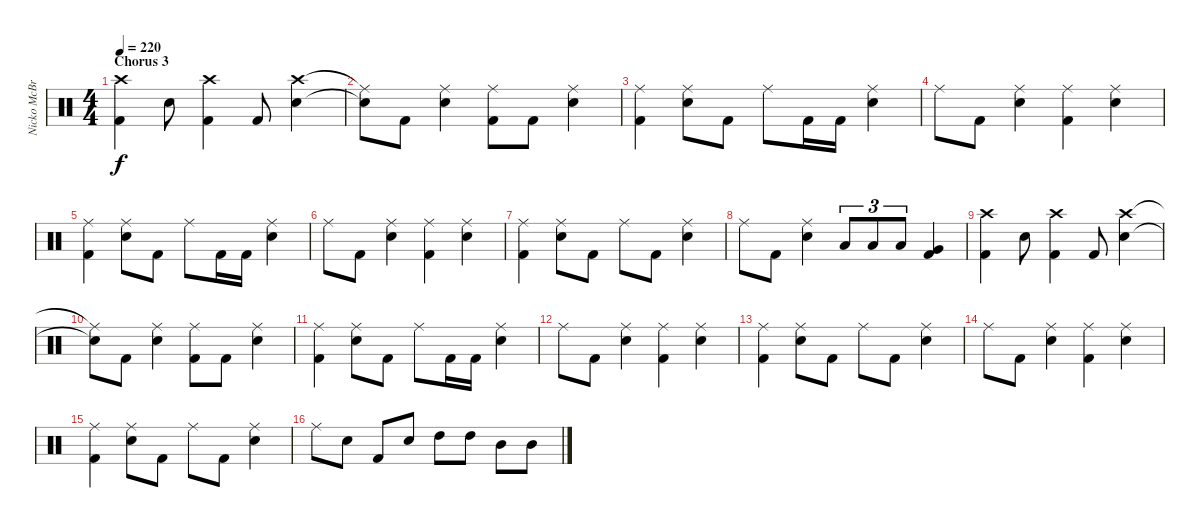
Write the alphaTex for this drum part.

\track ("Nicko McBrain" "Nicko McBr") {instrument percussion}
\staff {score}
\articulation defaults
\ts (4 4)
\section ("" "Chorus 3")
\tempo 220
\clef neutral
\ks c
("Crash high (hit)" "Kick (hit) 2").4{dy f} "Electric Snare (hit)".8 ("Crash high (hit)" "Kick (hit) 2").4 "Kick (hit) 2".8 ("Crash high (hit)" "Electric Snare (hit)").4 |
("Ride (middle)"{t} "Snare (hit)"{t}).8 "Kick (hit) 2".8 ("Ride (middle)" "Electric Snare (hit)").4 ("Ride (middle)" "Kick (hit) 2").8 "Kick (hit) 2".8 ("Ride (middle)" "Electric Snare (hit)").4 |
("Ride (middle)" "Kick (hit) 2").4 ("Ride (middle)" "Electric Snare (hit)").8 "Kick (hit) 2".8 "Ride (middle)".8 "Kick (hit) 2".16 "Kick (hit) 2".16 ("Ride (middle)" "Electric Snare (hit)").4 |
"Ride (middle)".8 "Kick (hit) 2".8 ("Ride (middle)" "Electric Snare (hit)").4 ("Ride (middle)" "Kick (hit) 2").4 ("Ride (middle)" "Electric Snare (hit)").4 |
("Ride (middle)" "Kick (hit) 2").4 ("Ride (middle)" "Electric Snare (hit)").8 "Kick (hit) 2".8 "Ride (middle)".8 "Kick (hit) 2".16 "Kick (hit) 2".16 ("Ride (middle)" "Electric Snare (hit)").4 |
"Ride (middle)".8 "Kick (hit) 2".8 ("Ride (middle)" "Electric Snare (hit)").4 ("Ride (middle)" "Kick (hit) 2").4 ("Ride (middle)" "Electric Snare (hit)").4 |
("Ride (middle)" "Kick (hit) 2").4 ("Ride (middle)" "Electric Snare (hit)").8 "Kick (hit) 2".8 "Ride (middle)".8 "Kick (hit) 2".8 ("Ride (middle)" "Electric Snare (hit)").4 |
"Ride (middle)".8 "Kick (hit) 2".8 ("Ride (middle)" "Electric Snare (hit)").4 "Low Tom (hit)".8{tu (3 2)} "Low Tom (hit)".8{tu (3 2)} "Low Tom (hit)".8{tu (3 2)} ("Very Low Tom (hit)" "Kick (hit) 2").4 |
("Crash high (hit)" "Kick (hit) 2").4 "Electric Snare (hit)".8 ("Crash high (hit)" "Kick (hit) 2").4 "Kick (hit) 2".8 ("Crash high (hit)" "Electric Snare (hit)").4 |
("Ride (middle)"{t} "Snare (hit)"{t}).8 "Kick (hit) 2".8 ("Ride (middle)" "Electric Snare (hit)").4 ("Ride (middle)" "Kick (hit) 2").8 "Kick (hit) 2".8 ("Ride (middle)" "Electric Snare (hit)").4 |
("Ride (middle)" "Kick (hit) 2").4 ("Ride (middle)" "Electric Snare (hit)").8 "Kick (hit) 2".8 "Ride (middle)".8 "Kick (hit) 2".16 "Kick (hit) 2".16 ("Ride (middle)" "Electric Snare (hit)").4 |
"Ride (middle)".8 "Kick (hit) 2".8 ("Ride (middle)" "Electric Snare (hit)").4 ("Ride (middle)" "Kick (hit) 2").4 ("Ride (middle)" "Electric Snare (hit)").4 |
("Ride (middle)" "Kick (hit) 2").4 ("Ride (middle)" "Electric Snare (hit)").8 "Kick (hit) 2".8 "Ride (middle)".8 "Kick (hit) 2".8 ("Ride (middle)" "Electric Snare (hit)").4 |
"Ride (middle)".8 "Kick (hit) 2".8 ("Ride (middle)" "Electric Snare (hit)").4 ("Ride (middle)" "Kick (hit) 2").4 ("Ride (middle)" "Electric Snare (hit)").4 |
("Ride (middle)" "Kick (hit) 2").4 ("Ride (middle)" "Electric Snare (hit)").8 "Kick (hit) 2".8 "Ride (middle)".8 "Kick (hit) 2".8 ("Ride (middle)" "Electric Snare (hit)").4 |
"Ride (middle)".8 "Electric Snare (hit)".8 "Kick (hit) 2".8 "Electric Snare (hit)".8 "High Tom (hit)".8 "High Tom (hit)".8 "Mid Tom (hit)".8 "Mid Tom (hit)".8
